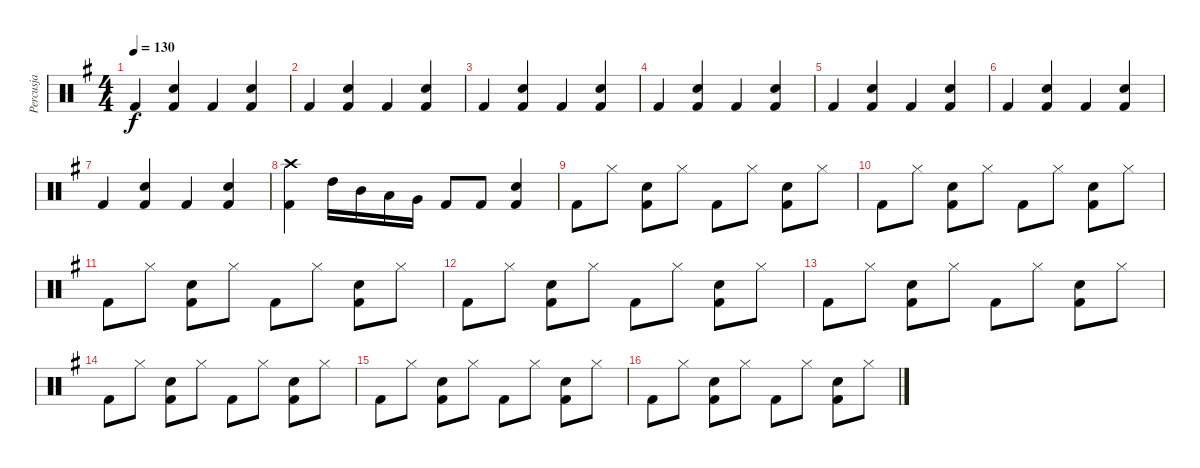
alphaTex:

\track ("Percusja" "Percusja") {instrument percussion}
\staff {score}
\articulation defaults
\ts (4 4)
\tempo 130
\clef neutral
\ks g "Kick (hit) 2".4{dy f}
("Hand Clap (hit)" "Kick (hit) 2").4 "Kick (hit) 2".4 ("Hand Clap (hit)" "Kick (hit) 2").4 |
"Kick (hit) 2".4 ("Hand Clap (hit)" "Kick (hit) 2").4 "Kick (hit) 2".4 ("Hand Clap (hit)" "Kick (hit) 2").4 |
"Kick (hit) 2".4 ("Hand Clap (hit)" "Kick (hit) 2").4 "Kick (hit) 2".4 ("Hand Clap (hit)" "Kick (hit) 2").4 |
"Kick (hit) 2".4 ("Hand Clap (hit)" "Kick (hit) 2").4 "Kick (hit) 2".4 ("Hand Clap (hit)" "Kick (hit) 2").4 |
"Kick (hit) 2".4 ("Hand Clap (hit)" "Kick (hit) 2").4 "Kick (hit) 2".4 ("Hand Clap (hit)" "Kick (hit) 2").4 |
"Kick (hit) 2".4 ("Hand Clap (hit)" "Kick (hit) 2").4 "Kick (hit) 2".4 ("Hand Clap (hit)" "Kick (hit) 2").4 |
"Kick (hit) 2".4 ("Hand Clap (hit)" "Kick (hit) 2").4 "Kick (hit) 2".4 ("Hand Clap (hit)" "Kick (hit) 2").4 |
("Crash high (hit)" "Kick (hit) 2").4 "High Tom (hit)".16 "Mid Tom (hit)".16 "Low Tom (hit)".16 "Very Low Tom (hit)".16 "Kick (hit) 2".8 "Kick (hit) 2".8 ("Hand Clap (hit)" "Kick (hit) 2").4 |
"Kick (hit) 2".8 "Hi-Hat (closed)".8 ("Hand Clap (hit)" "Kick (hit) 2").8 "Hi-Hat (closed)".8 "Kick (hit) 2".8 "Hi-Hat (closed)".8 ("Hand Clap (hit)" "Kick (hit) 2").8 "Hi-Hat (closed)".8 |
"Kick (hit) 2".8 "Hi-Hat (closed)".8 ("Hand Clap (hit)" "Kick (hit) 2").8 "Hi-Hat (closed)".8 "Kick (hit) 2".8 "Hi-Hat (closed)".8 ("Hand Clap (hit)" "Kick (hit) 2").8 "Hi-Hat (closed)".8 |
"Kick (hit) 2".8 "Hi-Hat (closed)".8 ("Hand Clap (hit)" "Kick (hit) 2").8 "Hi-Hat (closed)".8 "Kick (hit) 2".8 "Hi-Hat (closed)".8 ("Hand Clap (hit)" "Kick (hit) 2").8 "Hi-Hat (closed)".8 |
"Kick (hit) 2".8 "Hi-Hat (closed)".8 ("Hand Clap (hit)" "Kick (hit) 2").8 "Hi-Hat (closed)".8 "Kick (hit) 2".8 "Hi-Hat (closed)".8 ("Hand Clap (hit)" "Kick (hit) 2").8 "Hi-Hat (closed)".8 |
"Kick (hit) 2".8 "Hi-Hat (closed)".8 ("Hand Clap (hit)" "Kick (hit) 2").8 "Hi-Hat (closed)".8 "Kick (hit) 2".8 "Hi-Hat (closed)".8 ("Hand Clap (hit)" "Kick (hit) 2").8 "Hi-Hat (closed)".8 |
"Kick (hit) 2".8 "Hi-Hat (closed)".8 ("Hand Clap (hit)" "Kick (hit) 2").8 "Hi-Hat (closed)".8 "Kick (hit) 2".8 "Hi-Hat (closed)".8 ("Hand Clap (hit)" "Kick (hit) 2").8 "Hi-Hat (closed)".8 |
"Kick (hit) 2".8 "Hi-Hat (closed)".8 ("Hand Clap (hit)" "Kick (hit) 2").8 "Hi-Hat (closed)".8 "Kick (hit) 2".8 "Hi-Hat (closed)".8 ("Hand Clap (hit)" "Kick (hit) 2").8 "Hi-Hat (closed)".8 |
"Kick (hit) 2".8 "Hi-Hat (closed)".8 ("Hand Clap (hit)" "Kick (hit) 2").8 "Hi-Hat (closed)".8 "Kick (hit) 2".8 "Hi-Hat (closed)".8 ("Hand Clap (hit)" "Kick (hit) 2").8 "Hi-Hat (closed)".8
